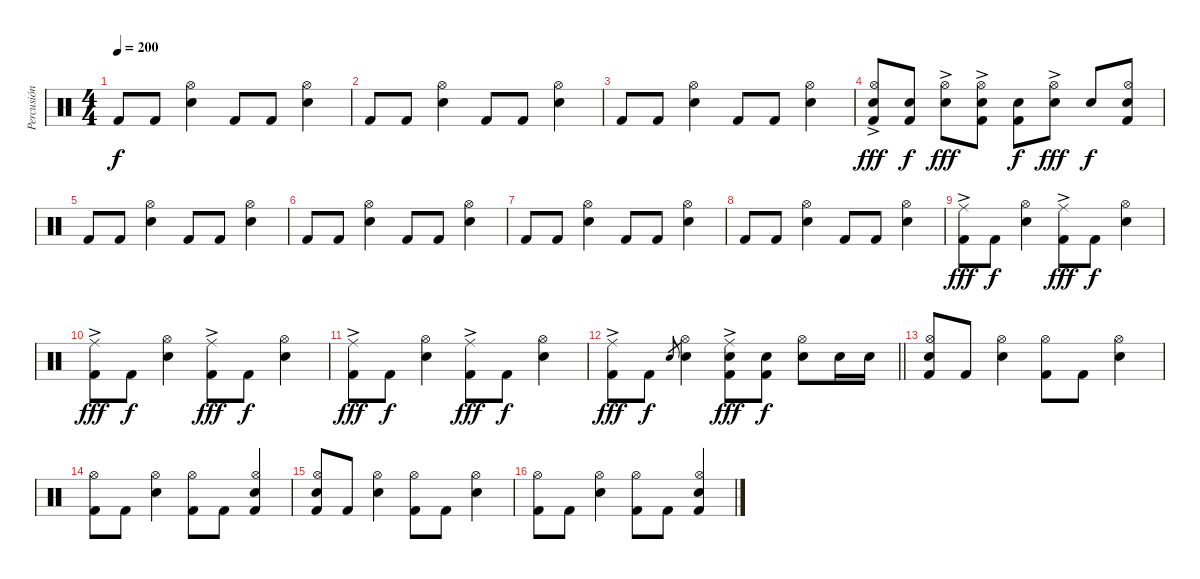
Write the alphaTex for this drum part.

\track ("Percusión" "Percusión") {instrument percussion}
\staff {score}
\articulation defaults
\ts (4 4)
\tempo 200
\clef neutral
\ks c "Kick (hit) 2".8{dy f} "Kick (hit) 2".8
("Hi-Hat (open)" "Snare (hit) 2").4 "Kick (hit) 2".8 "Kick (hit) 2".8 ("Hi-Hat (open)" "Snare (hit) 2").4 |
"Kick (hit) 2".8 "Kick (hit) 2".8 ("Hi-Hat (open)" "Snare (hit) 2").4 "Kick (hit) 2".8 "Kick (hit) 2".8 ("Hi-Hat (open)" "Snare (hit) 2").4 |
"Kick (hit) 2".8 "Kick (hit) 2".8 ("Hi-Hat (open)" "Snare (hit) 2").4 "Kick (hit) 2".8 "Kick (hit) 2".8 ("Hi-Hat (open)" "Snare (hit) 2").4 |
("Hi-Hat (open)"{ac} "Snare (hit) 2" "Kick (hit) 2").8{dy fff} ("Snare (hit) 2" "Kick (hit) 2").8{dy f} ("Hi-Hat (open)"{ac} "Snare (hit) 2").8{dy fff} ("Hi-Hat (open)"{ac} "Snare (hit) 2" "Kick (hit) 2").8 ("Snare (hit) 2" "Kick (hit) 2").8{dy f} ("Hi-Hat (open)"{ac} "Snare (hit) 2").8{dy fff} "Snare (hit) 2".8{dy f} ("Hi-Hat (open)" "Snare (hit) 2" "Kick (hit) 2").8 |
"Kick (hit) 2".8 "Kick (hit) 2".8 ("Hi-Hat (open)" "Snare (hit) 2").4 "Kick (hit) 2".8 "Kick (hit) 2".8 ("Hi-Hat (open)" "Snare (hit) 2").4 |
"Kick (hit) 2".8 "Kick (hit) 2".8 ("Hi-Hat (open)" "Snare (hit) 2").4 "Kick (hit) 2".8 "Kick (hit) 2".8 ("Hi-Hat (open)" "Snare (hit) 2").4 |
"Kick (hit) 2".8 "Kick (hit) 2".8 ("Hi-Hat (open)" "Snare (hit) 2").4 "Kick (hit) 2".8 "Kick (hit) 2".8 ("Hi-Hat (open)" "Snare (hit) 2").4 |
"Kick (hit) 2".8 "Kick (hit) 2".8 ("Hi-Hat (open)" "Snare (hit) 2").4 "Kick (hit) 2".8 "Kick (hit) 2".8 ("Hi-Hat (open)" "Snare (hit) 2").4 |
("Ride (middle)"{ac} "Kick (hit) 2").8{dy fff} "Kick (hit) 2".8{dy f} ("Hi-Hat (open)" "Snare (hit) 2").4 ("Ride (middle)"{ac} "Kick (hit) 2").8{dy fff} "Kick (hit) 2".8{dy f} ("Hi-Hat (open)" "Snare (hit) 2").4 |
("Ride (middle)"{ac} "Kick (hit) 2").8{dy fff} "Kick (hit) 2".8{dy f} ("Hi-Hat (open)" "Snare (hit) 2").4 ("Ride (middle)"{ac} "Kick (hit) 2").8{dy fff} "Kick (hit) 2".8{dy f} ("Hi-Hat (open)" "Snare (hit) 2").4 |
("Ride (middle)"{ac} "Kick (hit) 2").8{dy fff} "Kick (hit) 2".8{dy f} ("Hi-Hat (open)" "Snare (hit) 2").4 ("Ride (middle)"{ac} "Kick (hit) 2").8{dy fff} "Kick (hit) 2".8{dy f} ("Hi-Hat (open)" "Snare (hit) 2").4 |
\barLineRight lightlight
("Ride (middle)"{ac} "Kick (hit) 2").8{dy fff} "Kick (hit) 2".8{dy f} "Snare (hit) 2".8{gr} ("Hi-Hat (open)" "Snare (hit) 2").4 ("Ride (middle)"{ac} "Snare (hit) 2" "Kick (hit) 2").8{dy fff} ("Snare (hit) 2" "Kick (hit) 2").8{dy f} ("Hi-Hat (open)" "Snare (hit) 2").8 "Snare (hit) 2".16 "Snare (hit) 2".16 |
("Hi-Hat (open)" "Snare (hit) 2" "Kick (hit) 2").8 "Kick (hit) 2".8 ("Hi-Hat (open)" "Snare (hit) 2").4 ("Hi-Hat (open)" "Kick (hit) 2").8 "Kick (hit) 2".8 ("Hi-Hat (open)" "Snare (hit) 2").4 |
("Hi-Hat (open)" "Kick (hit) 2").8 "Kick (hit) 2".8 ("Hi-Hat (open)" "Snare (hit) 2").4 ("Hi-Hat (open)" "Kick (hit) 2").8 "Kick (hit) 2".8 ("Hi-Hat (open)" "Snare (hit) 2" "Kick (hit) 2").4 |
("Hi-Hat (open)" "Snare (hit) 2" "Kick (hit) 2").8 "Kick (hit) 2".8 ("Hi-Hat (open)" "Snare (hit) 2").4 ("Hi-Hat (open)" "Kick (hit) 2").8 "Kick (hit) 2".8 ("Hi-Hat (open)" "Snare (hit) 2").4 |
("Hi-Hat (open)" "Kick (hit) 2").8 "Kick (hit) 2".8 ("Hi-Hat (open)" "Snare (hit) 2").4 ("Hi-Hat (open)" "Kick (hit) 2").8 "Kick (hit) 2".8 ("Hi-Hat (open)" "Snare (hit) 2" "Kick (hit) 2").4
